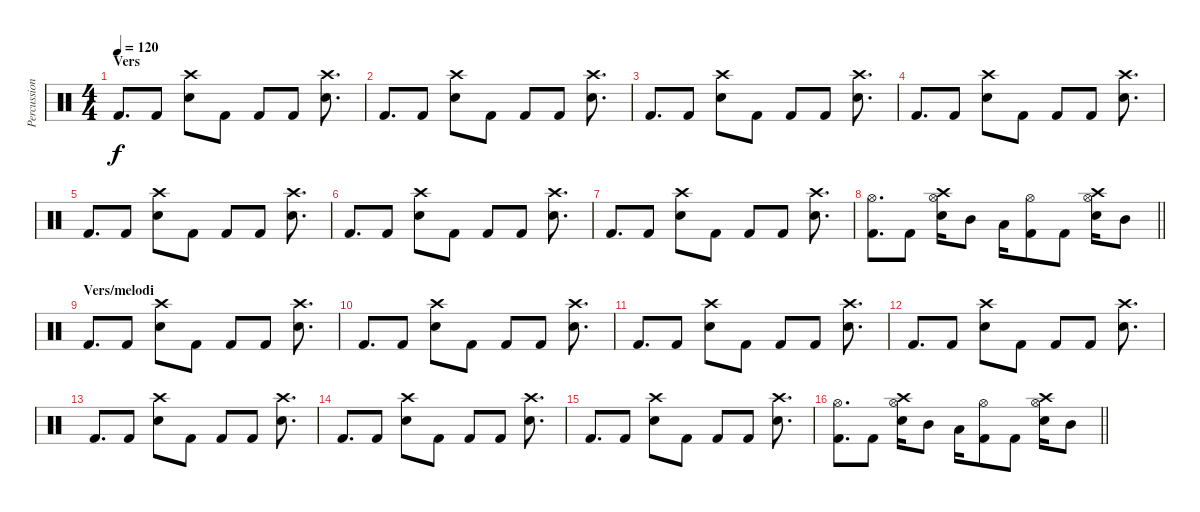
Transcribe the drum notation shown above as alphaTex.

\track ("Percussion" "Percussion") {instrument percussion}
\staff {score}
\articulation defaults
\ts (4 4)
\section ("" "Vers")
\tempo 120
\clef neutral
\ks c "Kick (hit) 2".8{d dy f} "Kick (hit) 2".8
("Crash high (hit)" "Electric Snare (hit)").8 "Kick (hit) 2".8 "Kick (hit) 2".8 "Kick (hit) 2".8 ("Crash high (hit)" "Electric Snare (hit)").8{d} |
"Kick (hit) 2".8{d} "Kick (hit) 2".8 ("Crash high (hit)" "Electric Snare (hit)").8 "Kick (hit) 2".8 "Kick (hit) 2".8 "Kick (hit) 2".8 ("Crash high (hit)" "Electric Snare (hit)").8{d} |
"Kick (hit) 2".8{d} "Kick (hit) 2".8 ("Crash high (hit)" "Electric Snare (hit)").8 "Kick (hit) 2".8 "Kick (hit) 2".8 "Kick (hit) 2".8 ("Crash high (hit)" "Electric Snare (hit)").8{d} |
"Kick (hit) 2".8{d} "Kick (hit) 2".8 ("Crash high (hit)" "Electric Snare (hit)").8 "Kick (hit) 2".8 "Kick (hit) 2".8 "Kick (hit) 2".8 ("Crash high (hit)" "Electric Snare (hit)").8{d} |
"Kick (hit) 2".8{d} "Kick (hit) 2".8 ("Crash high (hit)" "Electric Snare (hit)").8 "Kick (hit) 2".8 "Kick (hit) 2".8 "Kick (hit) 2".8 ("Crash high (hit)" "Electric Snare (hit)").8{d} |
"Kick (hit) 2".8{d} "Kick (hit) 2".8 ("Crash high (hit)" "Electric Snare (hit)").8 "Kick (hit) 2".8 "Kick (hit) 2".8 "Kick (hit) 2".8 ("Crash high (hit)" "Electric Snare (hit)").8{d} |
"Kick (hit) 2".8{d} "Kick (hit) 2".8 ("Crash high (hit)" "Electric Snare (hit)").8 "Kick (hit) 2".8 "Kick (hit) 2".8 "Kick (hit) 2".8 ("Crash high (hit)" "Electric Snare (hit)").8{d} |
\barLineRight lightlight
("Hi-Hat (open)" "Kick (hit) 2").8{d} "Kick (hit) 2".8 ("Hi-Hat (open)" "Crash high (hit)" "Electric Snare (hit)").16 "Mid Tom (hit)".8 "Low Tom (hit)".16 ("Hi-Hat (open)" "Kick (hit) 2").8 "Kick (hit) 2".8 ("Hi-Hat (open)" "Crash high (hit)" "Electric Snare (hit)").16 "Mid Tom (hit)".8 |
\section ("" "Vers/melodi")
"Kick (hit) 2".8{d} "Kick (hit) 2".8 ("Crash high (hit)" "Electric Snare (hit)").8 "Kick (hit) 2".8 "Kick (hit) 2".8 "Kick (hit) 2".8 ("Crash high (hit)" "Electric Snare (hit)").8{d} |
"Kick (hit) 2".8{d} "Kick (hit) 2".8 ("Crash high (hit)" "Electric Snare (hit)").8 "Kick (hit) 2".8 "Kick (hit) 2".8 "Kick (hit) 2".8 ("Crash high (hit)" "Electric Snare (hit)").8{d} |
"Kick (hit) 2".8{d} "Kick (hit) 2".8 ("Crash high (hit)" "Electric Snare (hit)").8 "Kick (hit) 2".8 "Kick (hit) 2".8 "Kick (hit) 2".8 ("Crash high (hit)" "Electric Snare (hit)").8{d} |
"Kick (hit) 2".8{d} "Kick (hit) 2".8 ("Crash high (hit)" "Electric Snare (hit)").8 "Kick (hit) 2".8 "Kick (hit) 2".8 "Kick (hit) 2".8 ("Crash high (hit)" "Electric Snare (hit)").8{d} |
"Kick (hit) 2".8{d} "Kick (hit) 2".8 ("Crash high (hit)" "Electric Snare (hit)").8 "Kick (hit) 2".8 "Kick (hit) 2".8 "Kick (hit) 2".8 ("Crash high (hit)" "Electric Snare (hit)").8{d} |
"Kick (hit) 2".8{d} "Kick (hit) 2".8 ("Crash high (hit)" "Electric Snare (hit)").8 "Kick (hit) 2".8 "Kick (hit) 2".8 "Kick (hit) 2".8 ("Crash high (hit)" "Electric Snare (hit)").8{d} |
"Kick (hit) 2".8{d} "Kick (hit) 2".8 ("Crash high (hit)" "Electric Snare (hit)").8 "Kick (hit) 2".8 "Kick (hit) 2".8 "Kick (hit) 2".8 ("Crash high (hit)" "Electric Snare (hit)").8{d} |
\barLineRight lightlight
("Hi-Hat (open)" "Kick (hit) 2").8{d} "Kick (hit) 2".8 ("Hi-Hat (open)" "Crash high (hit)" "Electric Snare (hit)").16 "Mid Tom (hit)".8 "Low Tom (hit)".16 ("Hi-Hat (open)" "Kick (hit) 2").8 "Kick (hit) 2".8 ("Hi-Hat (open)" "Crash high (hit)" "Electric Snare (hit)").16 "Mid Tom (hit)".8
